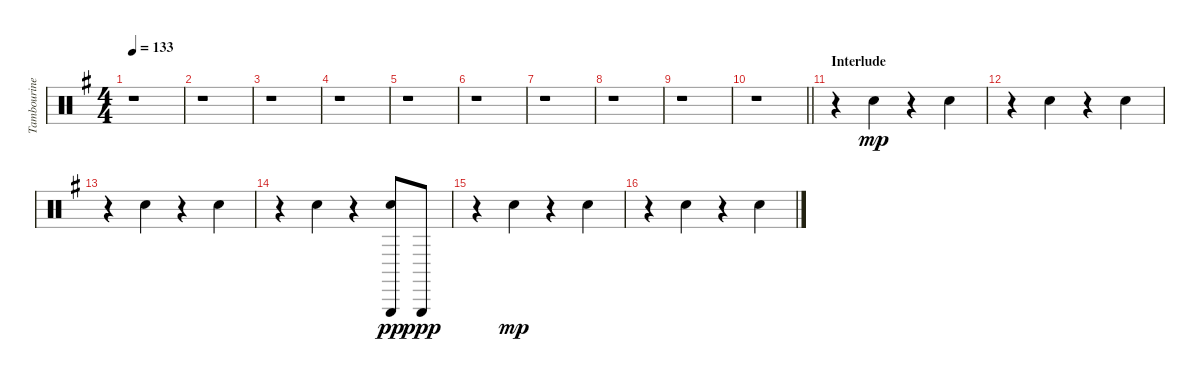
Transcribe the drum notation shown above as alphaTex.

\track ("Tambourine/Claps" "Tambourine") {instrument percussion}
\staff {score}
\articulation defaults
\ts (4 4)
\tempo 133
\clef neutral
\ks g
r.1{dy mp} |
r.1 |
r.1 |
r.1 |
r.1 |
r.1 |
r.1 |
r.1 |
r.1 |
\barLineRight lightlight
r.1 |
\section ("" "Interlude")
r.4 "Hand Clap (hit)".4 r.4 "Hand Clap (hit)".4 |
r.4 "Hand Clap (hit)".4 r.4 "Hand Clap (hit)".4 |
r.4 "Hand Clap (hit)".4 r.4 "Hand Clap (hit)".4 |
r.4 "Hand Clap (hit)".4 r.4 ("Hand Clap (hit)" "Triangle (hit)").8{dy pp} "Triangle (hit)".8{dy ppp} |
r.4 "Hand Clap (hit)".4{dy mp} r.4 "Hand Clap (hit)".4 |
r.4 "Hand Clap (hit)".4 r.4 "Hand Clap (hit)".4
